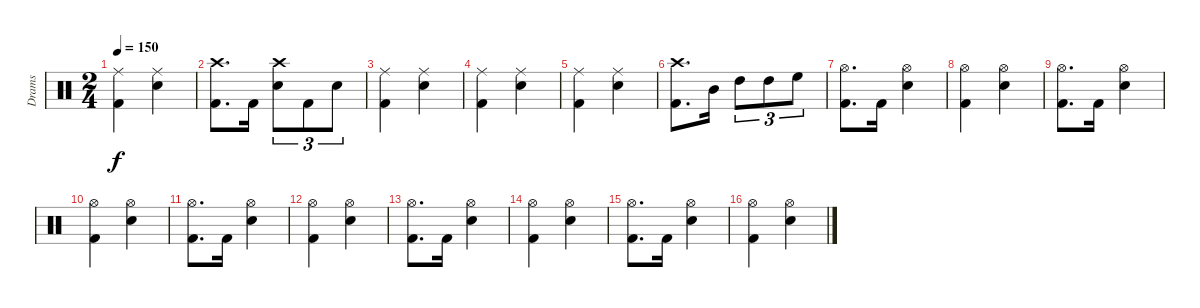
\track ("Drams" "Drams") {instrument percussion}
\staff {score}
\articulation defaults
\ts (2 4)
\tempo 150
\clef neutral
\ks aminor
("Ride (middle)" "Kick (hit) 2").4{dy f} ("Ride (middle)" "Electric Snare (hit)").4 |
("Kick (hit) 2" "Crash high (hit)").8{d} "Kick (hit) 2".16 ("Electric Snare (hit)" "Crash high (hit)").8{tu (3 2)} "Kick (hit) 2".8{tu (3 2)} "Electric Snare (hit)".8{tu (3 2)} |
("Ride (middle)" "Kick (hit) 2").4 ("Ride (middle)" "Electric Snare (hit)").4 |
("Ride (middle)" "Kick (hit) 2").4 ("Ride (middle)" "Electric Snare (hit)").4 |
("Ride (middle)" "Kick (hit) 2").4 ("Ride (middle)" "Electric Snare (hit)").4 |
("Kick (hit) 2" "Crash high (hit)").8{d} "Mid Tom (hit)".16 "High Tom (hit)".8{tu (3 2)} "High Tom (hit)".8{tu (3 2)} "High Floor Tom (hit)".8{tu (3 2)} |
("Hi-Hat (open)" "Kick (hit) 2").8{d} "Kick (hit) 2".16 ("Electric Snare (hit)" "Hi-Hat (open)").4 |
("Hi-Hat (open)" "Kick (hit) 2").4 ("Hi-Hat (open)" "Electric Snare (hit)").4 |
("Hi-Hat (open)" "Kick (hit) 2").8{d} "Kick (hit) 2".16 ("Electric Snare (hit)" "Hi-Hat (open)").4 |
("Hi-Hat (open)" "Kick (hit) 2").4 ("Hi-Hat (open)" "Electric Snare (hit)").4 |
("Hi-Hat (open)" "Kick (hit) 2").8{d} "Kick (hit) 2".16 ("Electric Snare (hit)" "Hi-Hat (open)").4 |
("Hi-Hat (open)" "Kick (hit) 2").4 ("Hi-Hat (open)" "Electric Snare (hit)").4 |
("Hi-Hat (open)" "Kick (hit) 2").8{d} "Kick (hit) 2".16 ("Electric Snare (hit)" "Hi-Hat (open)").4 |
("Hi-Hat (open)" "Kick (hit) 2").4 ("Hi-Hat (open)" "Electric Snare (hit)").4 |
("Hi-Hat (open)" "Kick (hit) 2").8{d} "Kick (hit) 2".16 ("Electric Snare (hit)" "Hi-Hat (open)").4 |
("Hi-Hat (open)" "Kick (hit) 2").4 ("Hi-Hat (open)" "Electric Snare (hit)").4
